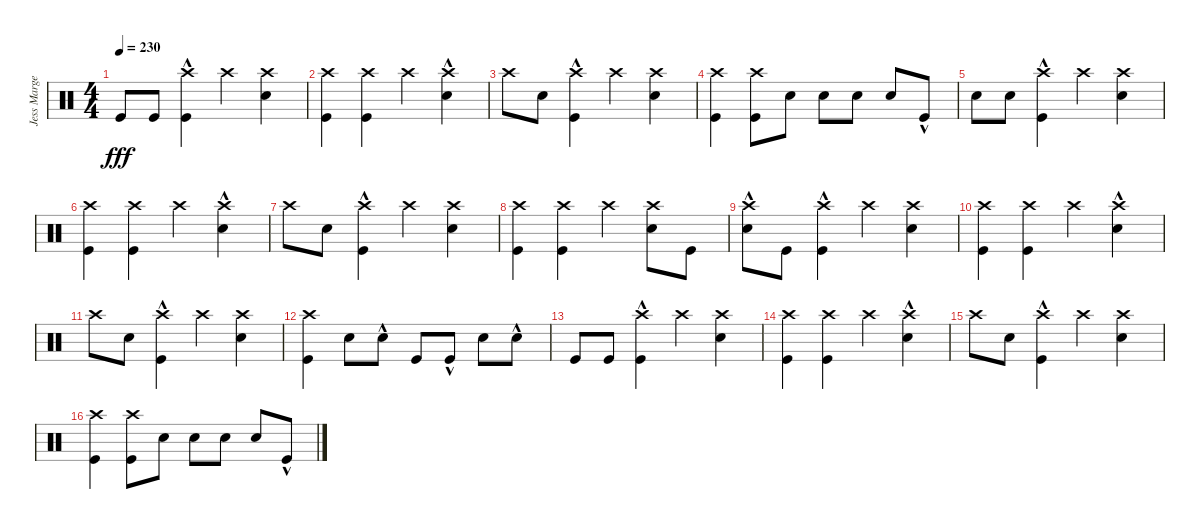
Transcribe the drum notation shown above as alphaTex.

\track ("Jess Margera (drums)" "Jess Marge") {instrument percussion}
\staff {score}
\articulation defaults
\ts (4 4)
\tempo 230
\clef neutral
\ks c "Kick (hit)".8{dy fff} "Kick (hit)".8
("Kick (hit)"{hac} "Crash high (hit)").4 "Crash high (hit)".4 ("Snare (hit) 2" "Crash high (hit)").4 |
("Kick (hit)" "Crash high (hit)").4 ("Kick (hit)" "Crash high (hit)").4 "Crash high (hit)".4 ("Snare (hit) 2"{hac} "Crash high (hit)").4 |
"Crash high (hit)".8 "Snare (hit) 2".8 ("Kick (hit)"{hac} "Crash high (hit)").4 "Crash high (hit)".4 ("Snare (hit) 2" "Crash high (hit)").4 |
("Kick (hit)" "Crash high (hit)").4 ("Kick (hit)" "Crash high (hit)").8 "Snare (hit) 2".8 "Snare (hit) 2".8 "Snare (hit) 2".8 "Snare (hit) 2".8 "Kick (hit)"{hac}.8 |
"Snare (hit) 2".8 "Snare (hit) 2".8 ("Kick (hit)"{hac} "Crash high (hit)").4 "Crash high (hit)".4 ("Snare (hit) 2" "Crash high (hit)").4 |
("Kick (hit)" "Crash high (hit)").4 ("Kick (hit)" "Crash high (hit)").4 "Crash high (hit)".4 ("Snare (hit) 2"{hac} "Crash high (hit)").4 |
"Crash high (hit)".8 "Snare (hit) 2".8 ("Kick (hit)"{hac} "Crash high (hit)").4 "Crash high (hit)".4 ("Snare (hit) 2" "Crash high (hit)").4 |
("Kick (hit)" "Crash high (hit)").4 ("Kick (hit)" "Crash high (hit)").4 "Crash high (hit)".4 ("Snare (hit) 2" "Crash high (hit)").8 "Kick (hit)".8 |
("Snare (hit) 2"{hac} "Crash high (hit)").8 "Kick (hit)".8 ("Kick (hit)"{hac} "Crash high (hit)").4 "Crash high (hit)".4 ("Snare (hit) 2" "Crash high (hit)").4 |
("Kick (hit)" "Crash high (hit)").4 ("Kick (hit)" "Crash high (hit)").4 "Crash high (hit)".4 ("Snare (hit) 2"{hac} "Crash high (hit)").4 |
"Crash high (hit)".8 "Snare (hit) 2".8 ("Kick (hit)"{hac} "Crash high (hit)").4 "Crash high (hit)".4 ("Snare (hit) 2" "Crash high (hit)").4 |
("Kick (hit)" "Crash high (hit)").4 "Snare (hit) 2".8 "Snare (hit) 2"{hac}.8 "Kick (hit)".8 "Kick (hit)"{hac}.8 "Snare (hit) 2".8 "Snare (hit) 2"{hac}.8 |
"Kick (hit)".8 "Kick (hit)".8 ("Kick (hit)"{hac} "Crash high (hit)").4 "Crash high (hit)".4 ("Snare (hit) 2" "Crash high (hit)").4 |
("Kick (hit)" "Crash high (hit)").4 ("Kick (hit)" "Crash high (hit)").4 "Crash high (hit)".4 ("Snare (hit) 2"{hac} "Crash high (hit)").4 |
"Crash high (hit)".8 "Snare (hit) 2".8 ("Kick (hit)"{hac} "Crash high (hit)").4 "Crash high (hit)".4 ("Snare (hit) 2" "Crash high (hit)").4 |
("Kick (hit)" "Crash high (hit)").4 ("Kick (hit)" "Crash high (hit)").8 "Snare (hit) 2".8 "Snare (hit) 2".8 "Snare (hit) 2".8 "Snare (hit) 2".8 "Kick (hit)"{hac}.8
